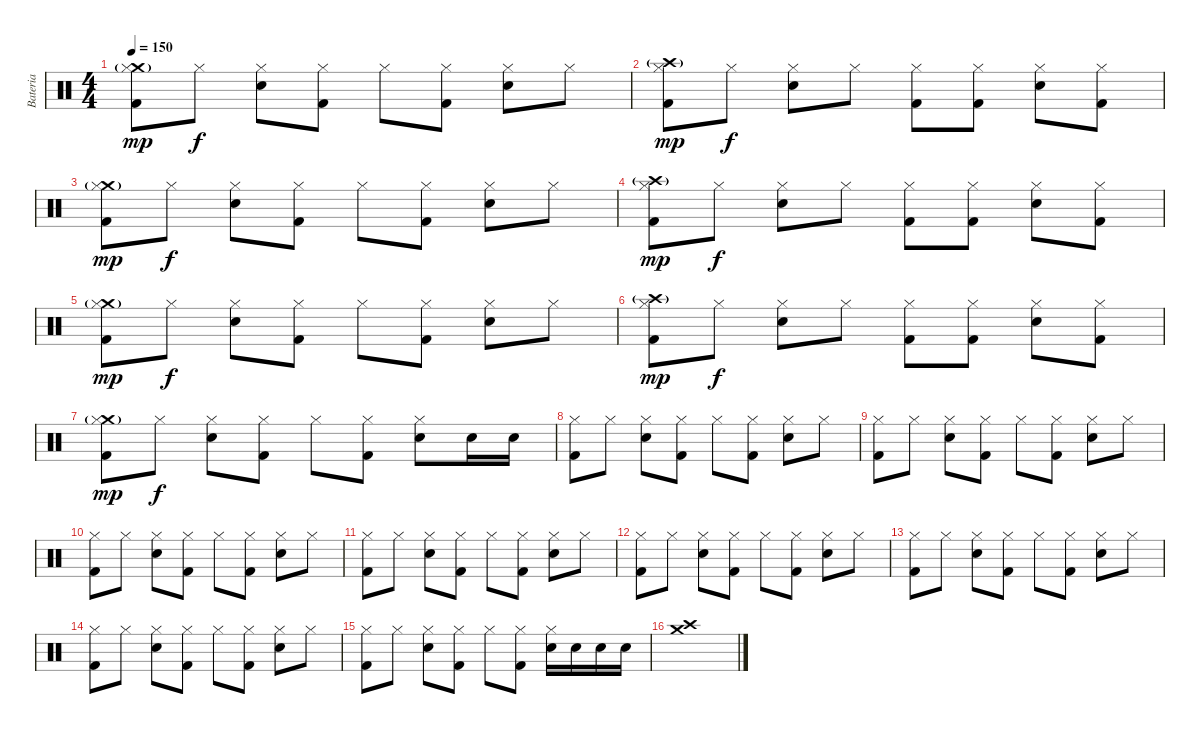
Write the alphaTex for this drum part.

\track ("Bateria" "Bateria") {instrument percussion}
\staff {score}
\articulation defaults
\ts (4 4)
\tempo 150
\clef neutral
\ks c
("Kick (hit) 2" "Crash medium (hit)"{g} "Hi-Hat (closed)").8{dy mp} "Hi-Hat (closed)".8{dy f} ("Electric Snare (hit)" "Hi-Hat (closed)").8 ("Kick (hit) 2" "Hi-Hat (closed)").8 "Hi-Hat (closed)".8 ("Kick (hit) 2" "Hi-Hat (closed)").8 ("Electric Snare (hit)" "Hi-Hat (closed)").8 "Hi-Hat (closed)".8 |
("Kick (hit) 2" "Crash high (hit)"{g} "Hi-Hat (closed)").8{dy mp} "Hi-Hat (closed)".8{dy f} ("Electric Snare (hit)" "Hi-Hat (closed)").8 "Hi-Hat (closed)".8 ("Kick (hit) 2" "Hi-Hat (closed)").8 ("Kick (hit) 2" "Hi-Hat (closed)").8 ("Electric Snare (hit)" "Hi-Hat (closed)").8 ("Kick (hit) 2" "Hi-Hat (closed)").8 |
("Kick (hit) 2" "Crash medium (hit)"{g} "Hi-Hat (closed)").8{dy mp} "Hi-Hat (closed)".8{dy f} ("Electric Snare (hit)" "Hi-Hat (closed)").8 ("Kick (hit) 2" "Hi-Hat (closed)").8 "Hi-Hat (closed)".8 ("Kick (hit) 2" "Hi-Hat (closed)").8 ("Electric Snare (hit)" "Hi-Hat (closed)").8 "Hi-Hat (closed)".8 |
("Kick (hit) 2" "Crash high (hit)"{g} "Hi-Hat (closed)").8{dy mp} "Hi-Hat (closed)".8{dy f} ("Electric Snare (hit)" "Hi-Hat (closed)").8 "Hi-Hat (closed)".8 ("Kick (hit) 2" "Hi-Hat (closed)").8 ("Kick (hit) 2" "Hi-Hat (closed)").8 ("Electric Snare (hit)" "Hi-Hat (closed)").8 ("Kick (hit) 2" "Hi-Hat (closed)").8 |
("Kick (hit) 2" "Crash medium (hit)"{g} "Hi-Hat (closed)").8{dy mp} "Hi-Hat (closed)".8{dy f} ("Electric Snare (hit)" "Hi-Hat (closed)").8 ("Kick (hit) 2" "Hi-Hat (closed)").8 "Hi-Hat (closed)".8 ("Kick (hit) 2" "Hi-Hat (closed)").8 ("Electric Snare (hit)" "Hi-Hat (closed)").8 "Hi-Hat (closed)".8 |
("Kick (hit) 2" "Crash high (hit)"{g} "Hi-Hat (closed)").8{dy mp} "Hi-Hat (closed)".8{dy f} ("Electric Snare (hit)" "Hi-Hat (closed)").8 "Hi-Hat (closed)".8 ("Kick (hit) 2" "Hi-Hat (closed)").8 ("Kick (hit) 2" "Hi-Hat (closed)").8 ("Electric Snare (hit)" "Hi-Hat (closed)").8 ("Kick (hit) 2" "Hi-Hat (closed)").8 |
("Kick (hit) 2" "Crash medium (hit)"{g} "Hi-Hat (closed)").8{dy mp} "Hi-Hat (closed)".8{dy f} ("Electric Snare (hit)" "Hi-Hat (closed)").8 ("Kick (hit) 2" "Hi-Hat (closed)").8 "Hi-Hat (closed)".8 ("Kick (hit) 2" "Hi-Hat (closed)").8 ("Electric Snare (hit)" "Hi-Hat (closed)").8 "Electric Snare (hit)".16 "Electric Snare (hit)".16 |
("Kick (hit) 2" "Hi-Hat (closed)").8 "Hi-Hat (closed)".8 ("Electric Snare (hit)" "Hi-Hat (closed)").8 ("Kick (hit) 2" "Hi-Hat (closed)").8 "Hi-Hat (closed)".8 ("Kick (hit) 2" "Hi-Hat (closed)").8 ("Electric Snare (hit)" "Hi-Hat (closed)").8 "Hi-Hat (closed)".8 |
("Kick (hit) 2" "Hi-Hat (closed)").8 "Hi-Hat (closed)".8 ("Electric Snare (hit)" "Hi-Hat (closed)").8 ("Kick (hit) 2" "Hi-Hat (closed)").8 "Hi-Hat (closed)".8 ("Kick (hit) 2" "Hi-Hat (closed)").8 ("Electric Snare (hit)" "Hi-Hat (closed)").8 "Hi-Hat (closed)".8 |
("Kick (hit) 2" "Hi-Hat (closed)").8 "Hi-Hat (closed)".8 ("Electric Snare (hit)" "Hi-Hat (closed)").8 ("Kick (hit) 2" "Hi-Hat (closed)").8 "Hi-Hat (closed)".8 ("Kick (hit) 2" "Hi-Hat (closed)").8 ("Electric Snare (hit)" "Hi-Hat (closed)").8 "Hi-Hat (closed)".8 |
("Kick (hit) 2" "Hi-Hat (closed)").8 "Hi-Hat (closed)".8 ("Electric Snare (hit)" "Hi-Hat (closed)").8 ("Kick (hit) 2" "Hi-Hat (closed)").8 "Hi-Hat (closed)".8 ("Kick (hit) 2" "Hi-Hat (closed)").8 ("Electric Snare (hit)" "Hi-Hat (closed)").8 "Hi-Hat (closed)".8 |
("Kick (hit) 2" "Hi-Hat (closed)").8 "Hi-Hat (closed)".8 ("Electric Snare (hit)" "Hi-Hat (closed)").8 ("Kick (hit) 2" "Hi-Hat (closed)").8 "Hi-Hat (closed)".8 ("Kick (hit) 2" "Hi-Hat (closed)").8 ("Electric Snare (hit)" "Hi-Hat (closed)").8 "Hi-Hat (closed)".8 |
("Kick (hit) 2" "Hi-Hat (closed)").8 "Hi-Hat (closed)".8 ("Electric Snare (hit)" "Hi-Hat (closed)").8 ("Kick (hit) 2" "Hi-Hat (closed)").8 "Hi-Hat (closed)".8 ("Kick (hit) 2" "Hi-Hat (closed)").8 ("Electric Snare (hit)" "Hi-Hat (closed)").8 "Hi-Hat (closed)".8 |
("Kick (hit) 2" "Hi-Hat (closed)").8 "Hi-Hat (closed)".8 ("Electric Snare (hit)" "Hi-Hat (closed)").8 ("Kick (hit) 2" "Hi-Hat (closed)").8 "Hi-Hat (closed)".8 ("Kick (hit) 2" "Hi-Hat (closed)").8 ("Electric Snare (hit)" "Hi-Hat (closed)").8 "Hi-Hat (closed)".8 |
("Kick (hit) 2" "Hi-Hat (closed)").8 "Hi-Hat (closed)".8 ("Electric Snare (hit)" "Hi-Hat (closed)").8 ("Kick (hit) 2" "Hi-Hat (closed)").8 "Hi-Hat (closed)".8 ("Kick (hit) 2" "Hi-Hat (closed)").8 ("Electric Snare (hit)" "Hi-Hat (closed)").16 "Electric Snare (hit)".16 "Electric Snare (hit)".16 "Electric Snare (hit)".16 |
("Crash high (hit)" "Crash medium (hit)").1
